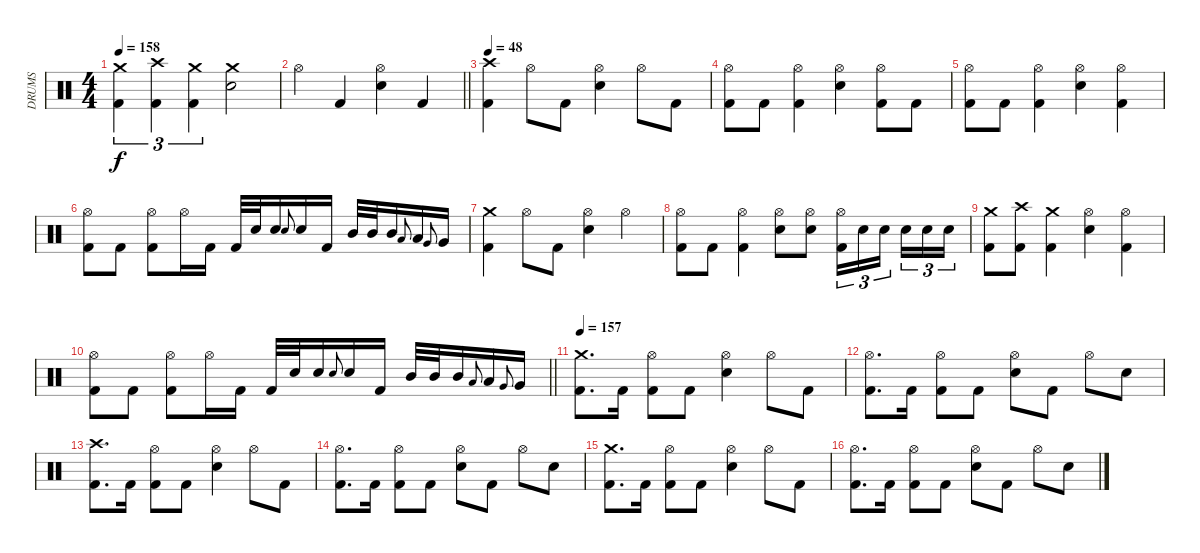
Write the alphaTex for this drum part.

\track ("DRUMS" "DRUMS") {instrument percussion}
\staff {score}
\articulation defaults
\ts (4 4)
\tempo 158
\clef neutral
\ks c
("Crash medium (hit)" "Kick (hit) 2").4{tu (3 2) dy f} ("Crash high (hit)" "Kick (hit) 2").4{tu (3 2)} ("Crash medium (hit)" "Kick (hit) 2").4{tu (3 2)} ("Crash medium (hit)" "Snare (hit) 2").2 |
\barLineRight lightlight "Hi-Hat (open)".4 "Kick (hit) 2".4
("Hi-Hat (open)" "Snare (hit) 2").4 "Kick (hit) 2".4 |
\tempo 48
("Crash high (hit)" "Kick (hit) 2").4 "Hi-Hat (open)".8 "Kick (hit) 2".8 ("Hi-Hat (open)" "Snare (hit) 2").4 "Hi-Hat (open)".8 "Kick (hit) 2".8 |
("Hi-Hat (open)" "Kick (hit) 2").8 "Kick (hit) 2".8 ("Hi-Hat (open)" "Kick (hit) 2").4 ("Hi-Hat (open)" "Snare (hit) 2").4 ("Hi-Hat (open)" "Kick (hit) 2").8 "Kick (hit) 2".8 |
("Hi-Hat (open)" "Kick (hit) 2").8 "Kick (hit) 2".8 ("Hi-Hat (open)" "Kick (hit) 2").4 ("Hi-Hat (open)" "Snare (hit) 2").4 ("Hi-Hat (open)" "Kick (hit) 2").4 |
("Hi-Hat (open)" "Kick (hit) 2").8 "Kick (hit) 2".8 ("Hi-Hat (open)" "Kick (hit) 2").8 "Hi-Hat (open)".16 "Kick (hit) 2".16 "Kick (hit) 2".32 "Snare (hit) 2".32 "Snare (hit) 2".16 "Snare (hit) 2".8{gr onbeat} "Snare (hit) 2".16 "Kick (hit) 2".16 "Mid Tom (hit)".32 "Mid Tom (hit)".32 "Mid Tom (hit)".16 "Low Tom (hit)".8{gr onbeat} "Low Tom (hit)".16 "Very Low Tom (hit)".8{gr onbeat} "Very Low Tom (hit)".16 |
("Crash medium (hit)" "Kick (hit) 2").4 "Hi-Hat (open)".8 "Kick (hit) 2".8 ("Hi-Hat (open)" "Snare (hit) 2").4 "Hi-Hat (open)".4 |
("Hi-Hat (open)" "Kick (hit) 2").8 "Kick (hit) 2".8 ("Hi-Hat (open)" "Kick (hit) 2").4 ("Hi-Hat (open)" "Snare (hit) 2").8 ("Hi-Hat (open)" "Snare (hit) 2").8 ("Hi-Hat (open)" "Kick (hit) 2").16{tu (3 2)} "Snare (hit) 2".16{tu (3 2)} "Snare (hit) 2".16{tu (3 2) beam splitsecondary} "Snare (hit) 2".16{tu (3 2)} "Snare (hit) 2".16{tu (3 2)} "Snare (hit) 2".16{tu (3 2)} |
("Crash medium (hit)" "Kick (hit) 2").8 ("Crash high (hit)" "Kick (hit) 2").8 ("Crash medium (hit)" "Kick (hit) 2").4 ("Hi-Hat (open)" "Snare (hit) 2").4 ("Hi-Hat (open)" "Kick (hit) 2").4 |
\barLineRight lightlight
("Hi-Hat (open)" "Kick (hit) 2").8 "Kick (hit) 2".8 ("Hi-Hat (open)" "Kick (hit) 2").8 "Hi-Hat (open)".16 "Kick (hit) 2".16 "Kick (hit) 2".32 "Snare (hit) 2".32 "Snare (hit) 2".16 "Snare (hit) 2".8{gr onbeat} "Snare (hit) 2".16 "Kick (hit) 2".16 "Mid Tom (hit)".32 "Mid Tom (hit)".32 "Mid Tom (hit)".16 "Low Tom (hit)".8{gr onbeat} "Low Tom (hit)".16 "Very Low Tom (hit)".8{gr onbeat} "Very Low Tom (hit)".16 |
\tempo 157
("Crash medium (hit)" "Kick (hit) 2").8{d} "Kick (hit) 2".16 ("Hi-Hat (open)" "Kick (hit) 2").8 "Kick (hit) 2".8 ("Hi-Hat (open)" "Snare (hit) 2").4 "Hi-Hat (open)".8 "Kick (hit) 2".8 |
("Hi-Hat (open)" "Kick (hit) 2").8{d} "Kick (hit) 2".16 ("Hi-Hat (open)" "Kick (hit) 2").8 "Kick (hit) 2".8 ("Hi-Hat (open)" "Snare (hit) 2").8 "Kick (hit) 2".8 "Hi-Hat (open)".8 "Snare (hit) 2".8 |
("Crash high (hit)" "Kick (hit) 2").8{d} "Kick (hit) 2".16 ("Hi-Hat (open)" "Kick (hit) 2").8 "Kick (hit) 2".8 ("Hi-Hat (open)" "Snare (hit) 2").4 "Hi-Hat (open)".8 "Kick (hit) 2".8 |
("Hi-Hat (open)" "Kick (hit) 2").8{d} "Kick (hit) 2".16 ("Hi-Hat (open)" "Kick (hit) 2").8 "Kick (hit) 2".8 ("Hi-Hat (open)" "Snare (hit) 2").8 "Kick (hit) 2".8 "Hi-Hat (open)".8 "Snare (hit) 2".8 |
("Crash medium (hit)" "Kick (hit) 2").8{d} "Kick (hit) 2".16 ("Hi-Hat (open)" "Kick (hit) 2").8 "Kick (hit) 2".8 ("Hi-Hat (open)" "Snare (hit) 2").4 "Hi-Hat (open)".8 "Kick (hit) 2".8 |
("Hi-Hat (open)" "Kick (hit) 2").8{d} "Kick (hit) 2".16 ("Hi-Hat (open)" "Kick (hit) 2").8 "Kick (hit) 2".8 ("Hi-Hat (open)" "Snare (hit) 2").8 "Kick (hit) 2".8 "Hi-Hat (open)".8 "Snare (hit) 2".8
